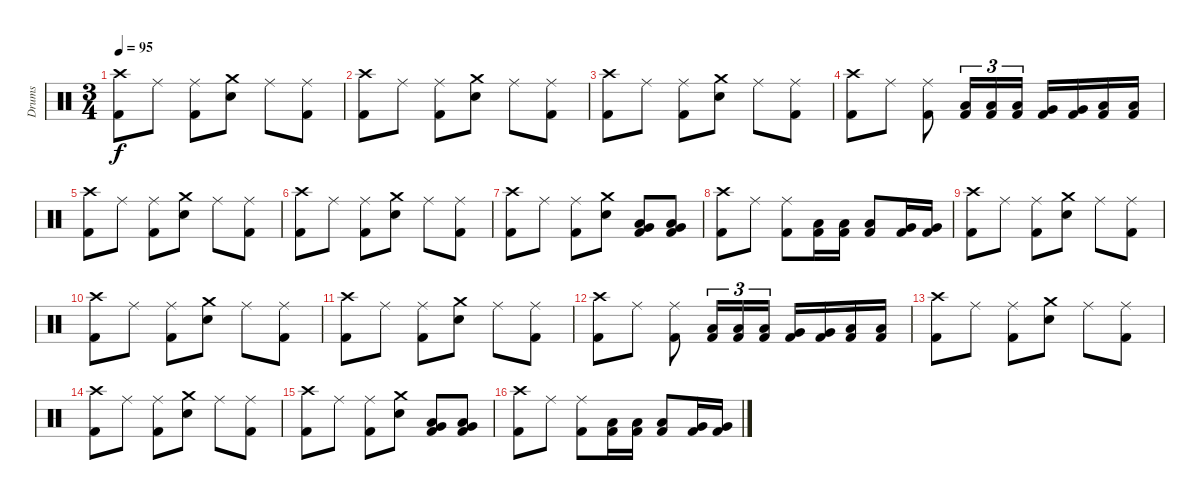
\track ("Drums" "Drums") {instrument percussion}
\staff {score}
\articulation defaults
\ts (3 4)
\tempo 95
\clef neutral
\ks c
("Crash high (hit)" "Kick (hit) 2").8{dy f} "Ride (middle)".8 ("Ride (middle)" "Kick (hit) 2").8 ("Crash medium (hit)" "Electric Snare (hit)").8 "Ride (middle)".8 ("Ride (middle)" "Kick (hit) 2").8 |
("Crash high (hit)" "Kick (hit) 2").8 "Ride (middle)".8 ("Ride (middle)" "Kick (hit) 2").8 ("Crash medium (hit)" "Electric Snare (hit)").8 "Ride (middle)".8 ("Ride (middle)" "Kick (hit) 2").8 |
("Crash high (hit)" "Kick (hit) 2").8 "Ride (middle)".8 ("Ride (middle)" "Kick (hit) 2").8 ("Crash medium (hit)" "Electric Snare (hit)").8 "Ride (middle)".8 ("Ride (middle)" "Kick (hit) 2").8 |
("Crash high (hit)" "Kick (hit) 2").8 "Ride (middle)".8 ("Ride (middle)" "Kick (hit) 2").8 ("Low Tom (hit)" "Kick (hit) 2").16{tu (3 2)} ("Low Tom (hit)" "Kick (hit) 2").16{tu (3 2)} ("Low Tom (hit)" "Kick (hit) 2").16{tu (3 2)} ("Very Low Tom (hit)" "Kick (hit) 2").16 ("Very Low Tom (hit)" "Kick (hit) 2").16 ("Low Floor Tom (hit)" "Kick (hit) 2").16 ("Low Floor Tom (hit)" "Kick (hit) 2").16 |
("Crash high (hit)" "Kick (hit) 2").8 "Ride (middle)".8 ("Ride (middle)" "Kick (hit) 2").8 ("Crash medium (hit)" "Electric Snare (hit)").8 "Ride (middle)".8 ("Ride (middle)" "Kick (hit) 2").8 |
("Crash high (hit)" "Kick (hit) 2").8 "Ride (middle)".8 ("Ride (middle)" "Kick (hit) 2").8 ("Crash medium (hit)" "Electric Snare (hit)").8 "Ride (middle)".8 ("Ride (middle)" "Kick (hit) 2").8 |
("Crash high (hit)" "Kick (hit) 2").8 "Ride (middle)".8 ("Ride (middle)" "Kick (hit) 2").8 ("Crash medium (hit)" "Electric Snare (hit)").8 ("Low Tom (hit)" "Very Low Tom (hit)" "Kick (hit) 2").8 ("Low Tom (hit)" "Very Low Tom (hit)" "Kick (hit) 2").8 |
("Crash high (hit)" "Kick (hit) 2").8 "Ride (middle)".8 ("Ride (middle)" "Kick (hit) 2").8 ("Low Tom (hit)" "Kick (hit) 2").16 ("Low Tom (hit)" "Kick (hit) 2").16 ("Low Tom (hit)" "Kick (hit) 2").8 ("Very Low Tom (hit)" "Kick (hit) 2").16 ("Very Low Tom (hit)" "Kick (hit) 2").16 |
("Crash high (hit)" "Kick (hit) 2").8 "Ride (middle)".8 ("Ride (middle)" "Kick (hit) 2").8 ("Crash medium (hit)" "Electric Snare (hit)").8 "Ride (middle)".8 ("Ride (middle)" "Kick (hit) 2").8 |
("Crash high (hit)" "Kick (hit) 2").8 "Ride (middle)".8 ("Ride (middle)" "Kick (hit) 2").8 ("Crash medium (hit)" "Electric Snare (hit)").8 "Ride (middle)".8 ("Ride (middle)" "Kick (hit) 2").8 |
("Crash high (hit)" "Kick (hit) 2").8 "Ride (middle)".8 ("Ride (middle)" "Kick (hit) 2").8 ("Crash medium (hit)" "Electric Snare (hit)").8 "Ride (middle)".8 ("Ride (middle)" "Kick (hit) 2").8 |
("Crash high (hit)" "Kick (hit) 2").8 "Ride (middle)".8 ("Ride (middle)" "Kick (hit) 2").8 ("Low Tom (hit)" "Kick (hit) 2").16{tu (3 2)} ("Low Tom (hit)" "Kick (hit) 2").16{tu (3 2)} ("Low Tom (hit)" "Kick (hit) 2").16{tu (3 2)} ("Very Low Tom (hit)" "Kick (hit) 2").16 ("Very Low Tom (hit)" "Kick (hit) 2").16 ("Low Floor Tom (hit)" "Kick (hit) 2").16 ("Low Floor Tom (hit)" "Kick (hit) 2").16 |
("Crash high (hit)" "Kick (hit) 2").8 "Ride (middle)".8 ("Ride (middle)" "Kick (hit) 2").8 ("Crash medium (hit)" "Electric Snare (hit)").8 "Ride (middle)".8 ("Ride (middle)" "Kick (hit) 2").8 |
("Crash high (hit)" "Kick (hit) 2").8 "Ride (middle)".8 ("Ride (middle)" "Kick (hit) 2").8 ("Crash medium (hit)" "Electric Snare (hit)").8 "Ride (middle)".8 ("Ride (middle)" "Kick (hit) 2").8 |
("Crash high (hit)" "Kick (hit) 2").8 "Ride (middle)".8 ("Ride (middle)" "Kick (hit) 2").8 ("Crash medium (hit)" "Electric Snare (hit)").8 ("Low Tom (hit)" "Very Low Tom (hit)" "Kick (hit) 2").8 ("Low Tom (hit)" "Very Low Tom (hit)" "Kick (hit) 2").8 |
("Crash high (hit)" "Kick (hit) 2").8 "Ride (middle)".8 ("Ride (middle)" "Kick (hit) 2").8 ("Low Tom (hit)" "Kick (hit) 2").16 ("Low Tom (hit)" "Kick (hit) 2").16 ("Low Tom (hit)" "Kick (hit) 2").8 ("Very Low Tom (hit)" "Kick (hit) 2").16 ("Very Low Tom (hit)" "Kick (hit) 2").16
